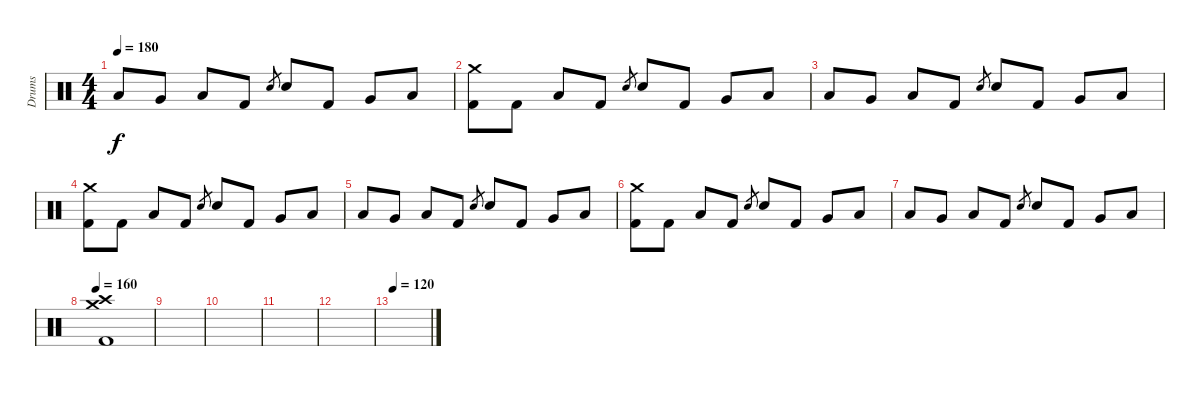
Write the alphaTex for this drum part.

\track ("Drums" "Drums") {instrument percussion}
\staff {score}
\articulation defaults
\ts (4 4)
\tempo 180
\clef neutral
\ks c "Low Tom (hit)".8{dy f} "Very Low Tom (hit)".8 "Low Floor Tom (hit)".8 "Kick (hit) 2".8 "Electric Snare (hit)".8{gr} "Electric Snare (hit)".8 "Kick (hit) 2".8 "Very Low Tom (hit)".8 "Low Floor Tom (hit)".8
|
("Crash medium (hit)" "Kick (hit) 2").8 "Kick (hit) 2".8 "Low Floor Tom (hit)".8 "Kick (hit) 2".8 "Electric Snare (hit)".8{gr} "Electric Snare (hit)".8 "Kick (hit) 2".8 "Very Low Tom (hit)".8 "Low Floor Tom (hit)".8 |
"Low Tom (hit)".8 "Very Low Tom (hit)".8 "Low Floor Tom (hit)".8 "Kick (hit) 2".8 "Electric Snare (hit)".8{gr} "Electric Snare (hit)".8 "Kick (hit) 2".8 "Very Low Tom (hit)".8 "Low Floor Tom (hit)".8 |
("Crash medium (hit)" "Kick (hit) 2").8 "Kick (hit) 2".8 "Low Floor Tom (hit)".8 "Kick (hit) 2".8 "Electric Snare (hit)".8{gr} "Electric Snare (hit)".8 "Kick (hit) 2".8 "Very Low Tom (hit)".8 "Low Floor Tom (hit)".8 |
"Low Tom (hit)".8 "Very Low Tom (hit)".8 "Low Floor Tom (hit)".8 "Kick (hit) 2".8 "Electric Snare (hit)".8{gr} "Electric Snare (hit)".8 "Kick (hit) 2".8 "Very Low Tom (hit)".8 "Low Floor Tom (hit)".8 |
("Crash medium (hit)" "Kick (hit) 2").8 "Kick (hit) 2".8 "Low Floor Tom (hit)".8 "Kick (hit) 2".8 "Electric Snare (hit)".8{gr} "Electric Snare (hit)".8 "Kick (hit) 2".8 "Very Low Tom (hit)".8 "Low Floor Tom (hit)".8 |
"Low Tom (hit)".8 "Very Low Tom (hit)".8 "Low Floor Tom (hit)".8 "Kick (hit) 2".8 "Electric Snare (hit)".8{gr} "Electric Snare (hit)".8 "Kick (hit) 2".8 "Very Low Tom (hit)".8 "Low Floor Tom (hit)".8 |
\tempo 160
("Crash medium (hit)" "Crash high (hit)" "Kick (hit) 2").1 |
|
|
|
|
\tempo 120
